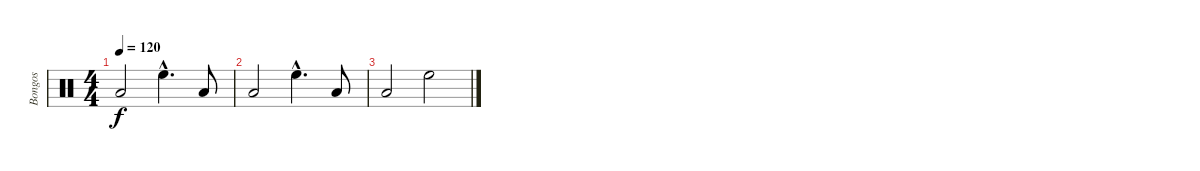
\track ("Bongos" "Bongos") {instrument percussion}
\staff {score}
\articulation defaults
\ts (4 4)
\tempo 120
\clef neutral
\ks c "Low Floor Tom (hit)".2{dy f} "High Floor Tom (hit)"{hac}.4{d} "Low Floor Tom (hit)".8
|
"Low Floor Tom (hit)".2 "High Floor Tom (hit)"{hac}.4{d} "Low Floor Tom (hit)".8 |
"Low Floor Tom (hit)".2 "High Floor Tom (hit)".2
